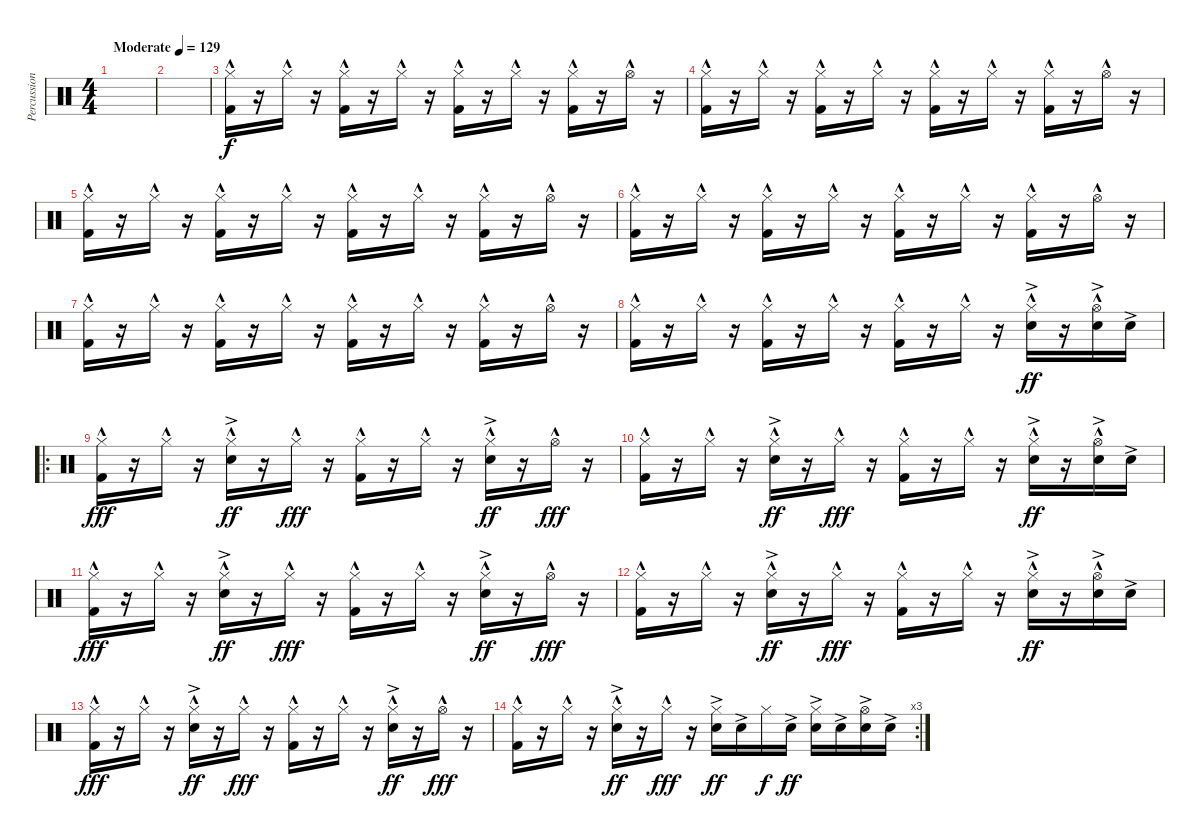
\track ("Percussion" "Percussion") {instrument percussion}
\staff {score}
\articulation defaults
\ts (4 4)
\tempo (129 "Moderate")
\clef neutral
\ks c
|
|
("Hi-Hat (closed)"{hac} "Kick (hit) 2"{hac}).16 r.16 "Hi-Hat (closed)"{hac}.16 r.16 ("Hi-Hat (closed)"{hac} "Kick (hit) 2"{hac}).16 r.16 "Hi-Hat (closed)"{hac}.16 r.16 ("Hi-Hat (closed)"{hac} "Kick (hit) 2"{hac}).16 r.16 "Hi-Hat (closed)"{hac}.16 r.16 ("Hi-Hat (closed)"{hac} "Kick (hit) 2"{hac}).16 r.16 "Hi-Hat (open)"{hac}.16 r.16 |
("Hi-Hat (closed)"{hac} "Kick (hit) 2"{hac}).16 r.16 "Hi-Hat (closed)"{hac}.16 r.16 ("Hi-Hat (closed)"{hac} "Kick (hit) 2"{hac}).16 r.16 "Hi-Hat (closed)"{hac}.16 r.16 ("Hi-Hat (closed)"{hac} "Kick (hit) 2"{hac}).16 r.16 "Hi-Hat (closed)"{hac}.16 r.16 ("Hi-Hat (closed)"{hac} "Kick (hit) 2"{hac}).16 r.16 "Hi-Hat (open)"{hac}.16 r.16 |
("Hi-Hat (closed)"{hac} "Kick (hit) 2"{hac}).16 r.16 "Hi-Hat (closed)"{hac}.16 r.16 ("Hi-Hat (closed)"{hac} "Kick (hit) 2"{hac}).16 r.16 "Hi-Hat (closed)"{hac}.16 r.16 ("Hi-Hat (closed)"{hac} "Kick (hit) 2"{hac}).16 r.16 "Hi-Hat (closed)"{hac}.16 r.16 ("Hi-Hat (closed)"{hac} "Kick (hit) 2"{hac}).16 r.16 "Hi-Hat (open)"{hac}.16 r.16 |
("Hi-Hat (closed)"{hac} "Kick (hit) 2"{hac}).16 r.16 "Hi-Hat (closed)"{hac}.16 r.16 ("Hi-Hat (closed)"{hac} "Kick (hit) 2"{hac}).16 r.16 "Hi-Hat (closed)"{hac}.16 r.16 ("Hi-Hat (closed)"{hac} "Kick (hit) 2"{hac}).16 r.16 "Hi-Hat (closed)"{hac}.16 r.16 ("Hi-Hat (closed)"{hac} "Kick (hit) 2"{hac}).16 r.16 "Hi-Hat (open)"{hac}.16 r.16 |
("Hi-Hat (closed)"{hac} "Kick (hit) 2"{hac}).16 r.16 "Hi-Hat (closed)"{hac}.16 r.16 ("Hi-Hat (closed)"{hac} "Kick (hit) 2"{hac}).16 r.16 "Hi-Hat (closed)"{hac}.16 r.16 ("Hi-Hat (closed)"{hac} "Kick (hit) 2"{hac}).16 r.16 "Hi-Hat (closed)"{hac}.16 r.16 ("Hi-Hat (closed)"{hac} "Kick (hit) 2"{hac}).16 r.16 "Hi-Hat (open)"{hac}.16 r.16 |
("Hi-Hat (closed)"{hac} "Kick (hit) 2"{hac}).16 r.16 "Hi-Hat (closed)"{hac}.16 r.16 ("Hi-Hat (closed)"{hac} "Kick (hit) 2"{hac}).16 r.16 "Hi-Hat (closed)"{hac}.16 r.16 ("Hi-Hat (closed)"{hac} "Kick (hit) 2"{hac}).16 r.16 "Hi-Hat (closed)"{hac}.16 r.16 ("Hi-Hat (closed)"{hac} "Snare (hit) 2"{ac}).16{dy ff} r.16 ("Hi-Hat (open)"{hac} "Snare (hit) 2"{ac}).16 "Snare (hit) 2"{ac}.16 |
\ro
("Hi-Hat (closed)"{hac} "Kick (hit) 2"{hac}).16{dy fff} r.16 "Hi-Hat (closed)"{hac}.16 r.16 ("Hi-Hat (closed)"{hac} "Snare (hit) 2"{ac}).16{dy ff} r.16 "Hi-Hat (closed)"{hac}.16{dy fff} r.16 ("Hi-Hat (closed)"{hac} "Kick (hit) 2"{hac}).16 r.16 "Hi-Hat (closed)"{hac}.16 r.16 ("Hi-Hat (closed)"{hac} "Snare (hit) 2"{ac}).16{dy ff} r.16 "Hi-Hat (open)"{hac}.16{dy fff} r.16 |
("Hi-Hat (closed)"{hac} "Kick (hit) 2"{hac}).16 r.16 "Hi-Hat (closed)"{hac}.16 r.16 ("Hi-Hat (closed)"{hac} "Snare (hit) 2"{ac}).16{dy ff} r.16 "Hi-Hat (closed)"{hac}.16{dy fff} r.16 ("Hi-Hat (closed)"{hac} "Kick (hit) 2"{hac}).16 r.16 "Hi-Hat (closed)"{hac}.16 r.16 ("Hi-Hat (closed)"{hac} "Snare (hit) 2"{ac}).16{dy ff} r.16 ("Hi-Hat (open)"{hac} "Snare (hit) 2"{ac}).16 "Snare (hit) 2"{ac}.16 |
("Hi-Hat (closed)"{hac} "Kick (hit) 2"{hac}).16{dy fff} r.16 "Hi-Hat (closed)"{hac}.16 r.16 ("Hi-Hat (closed)"{hac} "Snare (hit) 2"{ac}).16{dy ff} r.16 "Hi-Hat (closed)"{hac}.16{dy fff} r.16 ("Hi-Hat (closed)"{hac} "Kick (hit) 2"{hac}).16 r.16 "Hi-Hat (closed)"{hac}.16 r.16 ("Hi-Hat (closed)"{hac} "Snare (hit) 2"{ac}).16{dy ff} r.16 "Hi-Hat (open)"{hac}.16{dy fff} r.16 |
("Hi-Hat (closed)"{hac} "Kick (hit) 2"{hac}).16 r.16 "Hi-Hat (closed)"{hac}.16 r.16 ("Hi-Hat (closed)"{hac} "Snare (hit) 2"{ac}).16{dy ff} r.16 "Hi-Hat (closed)"{hac}.16{dy fff} r.16 ("Hi-Hat (closed)"{hac} "Kick (hit) 2"{hac}).16 r.16 "Hi-Hat (closed)"{hac}.16 r.16 ("Hi-Hat (closed)"{hac} "Snare (hit) 2"{ac}).16{dy ff} r.16 ("Hi-Hat (open)"{hac} "Snare (hit) 2"{ac}).16 "Snare (hit) 2"{ac}.16 |
("Hi-Hat (closed)"{hac} "Kick (hit) 2"{hac}).16{dy fff} r.16 "Hi-Hat (closed)"{hac}.16 r.16 ("Hi-Hat (closed)"{hac} "Snare (hit) 2"{ac}).16{dy ff} r.16 "Hi-Hat (closed)"{hac}.16{dy fff} r.16 ("Hi-Hat (closed)"{hac} "Kick (hit) 2"{hac}).16 r.16 "Hi-Hat (closed)"{hac}.16 r.16 ("Hi-Hat (closed)"{hac} "Snare (hit) 2"{ac}).16{dy ff} r.16 "Hi-Hat (open)"{hac}.16{dy fff} r.16 |
\rc 3
("Hi-Hat (closed)"{hac} "Kick (hit) 2"{hac}).16 r.16 "Hi-Hat (closed)"{hac}.16 r.16 ("Hi-Hat (closed)"{hac} "Snare (hit) 2"{ac}).16{dy ff} r.16 "Hi-Hat (closed)"{hac}.16{dy fff} r.16 ("Hi-Hat (closed)" "Snare (hit) 2"{ac}).16{dy ff} "Snare (hit) 2"{ac}.16 "Hi-Hat (closed)".16{dy f} "Snare (hit) 2"{ac}.16{dy ff} ("Hi-Hat (closed)" "Snare (hit) 2"{ac}).16 "Snare (hit) 2"{ac}.16 ("Hi-Hat (open)" "Snare (hit) 2"{ac}).16 "Snare (hit) 2"{ac}.16
